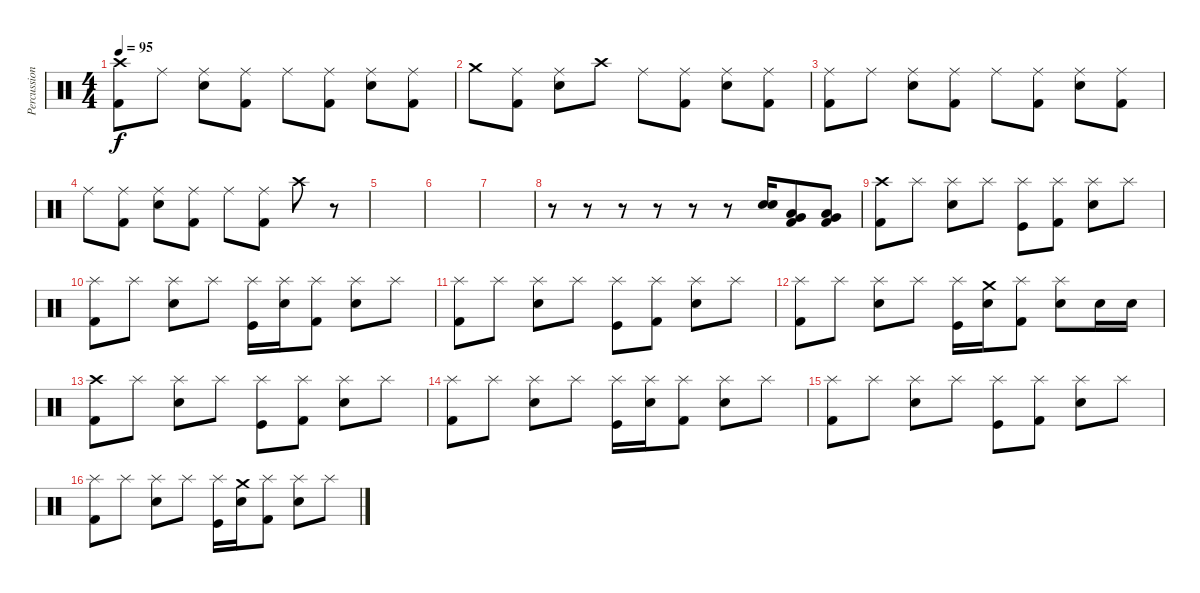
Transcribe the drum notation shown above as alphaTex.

\track ("Percussion" "Percussion") {instrument percussion}
\staff {score}
\articulation defaults
\ts (4 4)
\tempo 95
\clef neutral
\ks c
("Crash high (hit)" "Kick (hit) 2").8{dy f} "Ride (middle)".8 ("Ride (middle)" "Snare (hit) 2").8 ("Ride (middle)" "Kick (hit) 2").8 "Ride (middle)".8 ("Ride (middle)" "Kick (hit) 2").8 ("Ride (middle)" "Snare (hit) 2").8 ("Ride (middle)" "Kick (hit) 2").8 |
"Crash medium (hit)".8 ("Ride (middle)" "Kick (hit) 2").8 ("Ride (middle)" "Snare (hit) 2").8 "Crash high (hit)".8 "Ride (middle)".8 ("Ride (middle)" "Kick (hit) 2").8 ("Ride (middle)" "Snare (hit) 2").8 ("Ride (middle)" "Kick (hit) 2").8 |
("Ride (middle)" "Kick (hit) 2").8 "Ride (middle)".8 ("Ride (middle)" "Snare (hit) 2").8 ("Ride (middle)" "Kick (hit) 2").8 "Ride (middle)".8 ("Ride (middle)" "Kick (hit) 2").8 ("Ride (middle)" "Snare (hit) 2").8 ("Ride (middle)" "Kick (hit) 2").8 |
"Ride (middle)".8 ("Ride (middle)" "Kick (hit) 2").8 ("Ride (middle)" "Snare (hit) 2").8 ("Ride (middle)" "Kick (hit) 2").8 "Ride (middle)".8 ("Ride (middle)" "Kick (hit) 2").8 "Crash high (hit)".8 r.8 |
|
|
|
r.8 r.8 r.8 r.8 r.8 r.8 ("Snare (hit) 2" "Electric Snare (hit)").16 ("Low Tom (hit)" "Very Low Tom (hit)" "Kick (hit) 2").8 ("Very Low Tom (hit)" "Low Floor Tom (hit)" "Kick (hit) 2").8 |
("Crash high (hit)" "Kick (hit) 2").8 "Splash (hit)".8 ("Splash (hit)" "Electric Snare (hit)").8 "Splash (hit)".8 ("Splash (hit)" "Kick (hit)").8 ("Splash (hit)" "Kick (hit) 2").8 ("Splash (hit)" "Electric Snare (hit)").8 "Splash (hit)".8 |
("Splash (hit)" "Kick (hit) 2").8 "Splash (hit)".8 ("Splash (hit)" "Electric Snare (hit)").8 "Splash (hit)".8 ("Splash (hit)" "Kick (hit)").16 ("Splash (hit)" "Electric Snare (hit)").16 ("Splash (hit)" "Kick (hit) 2").8 ("Splash (hit)" "Electric Snare (hit)").8 "Splash (hit)".8 |
("Splash (hit)" "Kick (hit) 2").8 "Splash (hit)".8 ("Splash (hit)" "Electric Snare (hit)").8 "Splash (hit)".8 ("Splash (hit)" "Kick (hit)").8 ("Splash (hit)" "Kick (hit) 2").8 ("Splash (hit)" "Electric Snare (hit)").8 "Splash (hit)".8 |
("Splash (hit)" "Kick (hit) 2").8 "Splash (hit)".8 ("Splash (hit)" "Electric Snare (hit)").8 "Splash (hit)".8 ("Splash (hit)" "Kick (hit)").16 ("Crash medium (hit)" "Electric Snare (hit)").16 ("Splash (hit)" "Kick (hit) 2").8 ("Splash (hit)" "Electric Snare (hit)").8 "Electric Snare (hit)".16 "Electric Snare (hit)".16 |
("Crash high (hit)" "Kick (hit) 2").8 "Splash (hit)".8 ("Splash (hit)" "Electric Snare (hit)").8 "Splash (hit)".8 ("Splash (hit)" "Kick (hit)").8 ("Splash (hit)" "Kick (hit) 2").8 ("Splash (hit)" "Electric Snare (hit)").8 "Splash (hit)".8 |
("Splash (hit)" "Kick (hit) 2").8 "Splash (hit)".8 ("Splash (hit)" "Electric Snare (hit)").8 "Splash (hit)".8 ("Splash (hit)" "Kick (hit)").16 ("Splash (hit)" "Electric Snare (hit)").16 ("Splash (hit)" "Kick (hit) 2").8 ("Splash (hit)" "Electric Snare (hit)").8 "Splash (hit)".8 |
("Splash (hit)" "Kick (hit) 2").8 "Splash (hit)".8 ("Splash (hit)" "Electric Snare (hit)").8 "Splash (hit)".8 ("Splash (hit)" "Kick (hit)").8 ("Splash (hit)" "Kick (hit) 2").8 ("Splash (hit)" "Electric Snare (hit)").8 "Splash (hit)".8 |
("Splash (hit)" "Kick (hit) 2").8 "Splash (hit)".8 ("Splash (hit)" "Electric Snare (hit)").8 "Splash (hit)".8 ("Splash (hit)" "Kick (hit)").16 ("Crash medium (hit)" "Electric Snare (hit)").16 ("Splash (hit)" "Kick (hit) 2").8 ("Splash (hit)" "Electric Snare (hit)").8 "Splash (hit)".8
